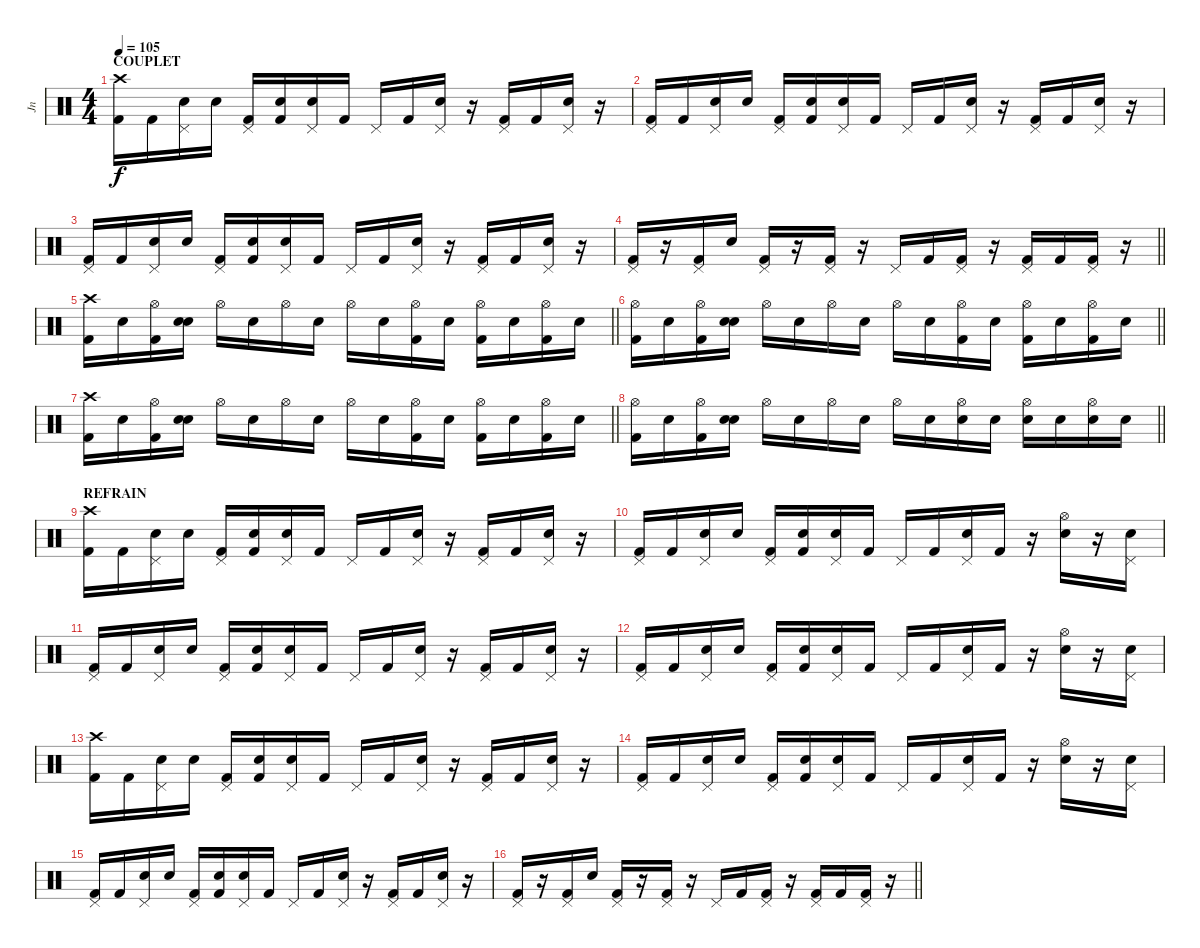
\track ("Jn" "Jn") {instrument percussion}
\staff {score}
\articulation defaults
\ts (4 4)
\section ("" "COUPLET")
\tempo 105
\clef neutral
\ks c
("Crash high (hit)" "Kick (hit) 2").16{dy f} "Kick (hit) 2".16 ("Pedal Hi-Hat (hit)" "Electric Snare (hit)").16 "Snare (hit)".16 ("Pedal Hi-Hat (hit)" "Kick (hit) 2").16 ("Snare (hit)" "Kick (hit) 2").16 ("Pedal Hi-Hat (hit)" "Electric Snare (hit)").16 "Kick (hit) 2".16 "Pedal Hi-Hat (hit)".16 "Kick (hit) 2".16 ("Pedal Hi-Hat (hit)" "Electric Snare (hit)").16 r.16 ("Pedal Hi-Hat (hit)" "Kick (hit) 2").16 "Kick (hit) 2".16 ("Pedal Hi-Hat (hit)" "Electric Snare (hit)").16 r.16 |
("Pedal Hi-Hat (hit)" "Kick (hit) 2").16 "Kick (hit) 2".16 ("Pedal Hi-Hat (hit)" "Electric Snare (hit)").16 "Snare (hit)".16 ("Pedal Hi-Hat (hit)" "Kick (hit) 2").16 ("Snare (hit)" "Kick (hit) 2").16 ("Pedal Hi-Hat (hit)" "Electric Snare (hit)").16 "Kick (hit) 2".16 "Pedal Hi-Hat (hit)".16 "Kick (hit) 2".16 ("Pedal Hi-Hat (hit)" "Electric Snare (hit)").16 r.16 ("Pedal Hi-Hat (hit)" "Kick (hit) 2").16 "Kick (hit) 2".16 ("Pedal Hi-Hat (hit)" "Electric Snare (hit)").16 r.16 |
("Pedal Hi-Hat (hit)" "Kick (hit) 2").16 "Kick (hit) 2".16 ("Pedal Hi-Hat (hit)" "Electric Snare (hit)").16 "Snare (hit)".16 ("Pedal Hi-Hat (hit)" "Kick (hit) 2").16 ("Snare (hit)" "Kick (hit) 2").16 ("Pedal Hi-Hat (hit)" "Electric Snare (hit)").16 "Kick (hit) 2".16 "Pedal Hi-Hat (hit)".16 "Kick (hit) 2".16 ("Pedal Hi-Hat (hit)" "Electric Snare (hit)").16 r.16 ("Pedal Hi-Hat (hit)" "Kick (hit) 2").16 "Kick (hit) 2".16 ("Pedal Hi-Hat (hit)" "Electric Snare (hit)").16 r.16 |
\barLineRight lightlight
("Pedal Hi-Hat (hit)" "Kick (hit) 2").16 r.16 ("Pedal Hi-Hat (hit)" "Kick (hit) 2").16 "Snare (hit)".16 ("Pedal Hi-Hat (hit)" "Kick (hit) 2").16 r.16 ("Pedal Hi-Hat (hit)" "Kick (hit) 2").16 r.16 "Pedal Hi-Hat (hit)".16 "Kick (hit) 2".16 ("Pedal Hi-Hat (hit)" "Kick (hit) 2").16 r.16 ("Pedal Hi-Hat (hit)" "Kick (hit) 2").16 "Kick (hit) 2".16 ("Pedal Hi-Hat (hit)" "Kick (hit) 2").16 r.16 |
\barLineRight lightlight
("Crash high (hit)" "Kick (hit) 2").16 "Electric Snare (hit)".16 ("Hi-Hat (open)" "Kick (hit) 2").16 ("Snare (hit)" "Electric Snare (hit)").16 "Hi-Hat (open)".16 "Electric Snare (hit)".16 "Hi-Hat (open)".16 "Electric Snare (hit)".16 "Hi-Hat (open)".16 "Electric Snare (hit)".16 ("Hi-Hat (open)" "Kick (hit) 2").16 "Electric Snare (hit)".16 ("Hi-Hat (open)" "Kick (hit) 2").16 "Electric Snare (hit)".16 ("Hi-Hat (open)" "Kick (hit) 2").16 "Electric Snare (hit)".16 |
\barLineRight lightlight
("Hi-Hat (open)" "Kick (hit) 2").16 "Electric Snare (hit)".16 ("Hi-Hat (open)" "Kick (hit) 2").16 ("Snare (hit)" "Electric Snare (hit)").16 "Hi-Hat (open)".16 "Electric Snare (hit)".16 "Hi-Hat (open)".16 "Electric Snare (hit)".16 "Hi-Hat (open)".16 "Electric Snare (hit)".16 ("Hi-Hat (open)" "Kick (hit) 2").16 "Electric Snare (hit)".16 ("Hi-Hat (open)" "Kick (hit) 2").16 "Electric Snare (hit)".16 ("Hi-Hat (open)" "Kick (hit) 2").16 "Electric Snare (hit)".16 |
\barLineRight lightlight
("Crash high (hit)" "Kick (hit) 2").16 "Electric Snare (hit)".16 ("Hi-Hat (open)" "Kick (hit) 2").16 ("Snare (hit)" "Electric Snare (hit)").16 "Hi-Hat (open)".16 "Electric Snare (hit)".16 "Hi-Hat (open)".16 "Electric Snare (hit)".16 "Hi-Hat (open)".16 "Electric Snare (hit)".16 ("Hi-Hat (open)" "Kick (hit) 2").16 "Electric Snare (hit)".16 ("Hi-Hat (open)" "Kick (hit) 2").16 "Electric Snare (hit)".16 ("Hi-Hat (open)" "Kick (hit) 2").16 "Electric Snare (hit)".16 |
\barLineRight lightlight
("Hi-Hat (open)" "Kick (hit) 2").16 "Electric Snare (hit)".16 ("Hi-Hat (open)" "Kick (hit) 2").16 ("Snare (hit)" "Electric Snare (hit)").16 "Hi-Hat (open)".16 "Electric Snare (hit)".16 "Hi-Hat (open)".16 "Electric Snare (hit)".16 "Hi-Hat (open)".16 "Electric Snare (hit)".16 ("Hi-Hat (open)" "Electric Snare (hit)").16 "Electric Snare (hit)".16 ("Hi-Hat (open)" "Electric Snare (hit)").16 "Electric Snare (hit)".16 ("Hi-Hat (open)" "Electric Snare (hit)").16 "Electric Snare (hit)".16 |
\section ("" "REFRAIN")
("Crash high (hit)" "Kick (hit) 2").16 "Kick (hit) 2".16 ("Pedal Hi-Hat (hit)" "Electric Snare (hit)").16 "Snare (hit)".16 ("Pedal Hi-Hat (hit)" "Kick (hit) 2").16 ("Snare (hit)" "Kick (hit) 2").16 ("Pedal Hi-Hat (hit)" "Electric Snare (hit)").16 "Kick (hit) 2".16 "Pedal Hi-Hat (hit)".16 "Kick (hit) 2".16 ("Pedal Hi-Hat (hit)" "Electric Snare (hit)").16 r.16 ("Pedal Hi-Hat (hit)" "Kick (hit) 2").16 "Kick (hit) 2".16 ("Pedal Hi-Hat (hit)" "Electric Snare (hit)").16 r.16 |
("Pedal Hi-Hat (hit)" "Kick (hit) 2").16 "Kick (hit) 2".16 ("Pedal Hi-Hat (hit)" "Electric Snare (hit)").16 "Snare (hit)".16 ("Pedal Hi-Hat (hit)" "Kick (hit) 2").16 ("Snare (hit)" "Kick (hit) 2").16 ("Pedal Hi-Hat (hit)" "Electric Snare (hit)").16 "Kick (hit) 2".16 "Pedal Hi-Hat (hit)".16 "Kick (hit) 2".16 ("Pedal Hi-Hat (hit)" "Electric Snare (hit)").16 "Kick (hit) 2".16 r.16 ("Hi-Hat (open)" "Electric Snare (hit)").16 r.16 ("Pedal Hi-Hat (hit)" "Electric Snare (hit)").16 |
("Pedal Hi-Hat (hit)" "Kick (hit) 2").16 "Kick (hit) 2".16 ("Pedal Hi-Hat (hit)" "Electric Snare (hit)").16 "Snare (hit)".16 ("Pedal Hi-Hat (hit)" "Kick (hit) 2").16 ("Snare (hit)" "Kick (hit) 2").16 ("Pedal Hi-Hat (hit)" "Electric Snare (hit)").16 "Kick (hit) 2".16 "Pedal Hi-Hat (hit)".16 "Kick (hit) 2".16 ("Pedal Hi-Hat (hit)" "Electric Snare (hit)").16 r.16 ("Pedal Hi-Hat (hit)" "Kick (hit) 2").16 "Kick (hit) 2".16 ("Pedal Hi-Hat (hit)" "Electric Snare (hit)").16 r.16 |
("Pedal Hi-Hat (hit)" "Kick (hit) 2").16 "Kick (hit) 2".16 ("Pedal Hi-Hat (hit)" "Electric Snare (hit)").16 "Snare (hit)".16 ("Pedal Hi-Hat (hit)" "Kick (hit) 2").16 ("Snare (hit)" "Kick (hit) 2").16 ("Pedal Hi-Hat (hit)" "Electric Snare (hit)").16 "Kick (hit) 2".16 "Pedal Hi-Hat (hit)".16 "Kick (hit) 2".16 ("Pedal Hi-Hat (hit)" "Electric Snare (hit)").16 "Kick (hit) 2".16 r.16 ("Hi-Hat (open)" "Electric Snare (hit)").16 r.16 ("Pedal Hi-Hat (hit)" "Electric Snare (hit)").16 |
("Crash high (hit)" "Kick (hit) 2").16 "Kick (hit) 2".16 ("Pedal Hi-Hat (hit)" "Electric Snare (hit)").16 "Snare (hit)".16 ("Pedal Hi-Hat (hit)" "Kick (hit) 2").16 ("Snare (hit)" "Kick (hit) 2").16 ("Pedal Hi-Hat (hit)" "Electric Snare (hit)").16 "Kick (hit) 2".16 "Pedal Hi-Hat (hit)".16 "Kick (hit) 2".16 ("Pedal Hi-Hat (hit)" "Electric Snare (hit)").16 r.16 ("Pedal Hi-Hat (hit)" "Kick (hit) 2").16 "Kick (hit) 2".16 ("Pedal Hi-Hat (hit)" "Electric Snare (hit)").16 r.16 |
("Pedal Hi-Hat (hit)" "Kick (hit) 2").16 "Kick (hit) 2".16 ("Pedal Hi-Hat (hit)" "Electric Snare (hit)").16 "Snare (hit)".16 ("Pedal Hi-Hat (hit)" "Kick (hit) 2").16 ("Snare (hit)" "Kick (hit) 2").16 ("Pedal Hi-Hat (hit)" "Electric Snare (hit)").16 "Kick (hit) 2".16 "Pedal Hi-Hat (hit)".16 "Kick (hit) 2".16 ("Pedal Hi-Hat (hit)" "Electric Snare (hit)").16 "Kick (hit) 2".16 r.16 ("Hi-Hat (open)" "Electric Snare (hit)").16 r.16 ("Pedal Hi-Hat (hit)" "Electric Snare (hit)").16 |
("Pedal Hi-Hat (hit)" "Kick (hit) 2").16 "Kick (hit) 2".16 ("Pedal Hi-Hat (hit)" "Electric Snare (hit)").16 "Snare (hit)".16 ("Pedal Hi-Hat (hit)" "Kick (hit) 2").16 ("Snare (hit)" "Kick (hit) 2").16 ("Pedal Hi-Hat (hit)" "Electric Snare (hit)").16 "Kick (hit) 2".16 "Pedal Hi-Hat (hit)".16 "Kick (hit) 2".16 ("Pedal Hi-Hat (hit)" "Electric Snare (hit)").16 r.16 ("Pedal Hi-Hat (hit)" "Kick (hit) 2").16 "Kick (hit) 2".16 ("Pedal Hi-Hat (hit)" "Electric Snare (hit)").16 r.16 |
\barLineRight lightlight
("Pedal Hi-Hat (hit)" "Kick (hit) 2").16 r.16 ("Pedal Hi-Hat (hit)" "Kick (hit) 2").16 "Snare (hit)".16 ("Pedal Hi-Hat (hit)" "Kick (hit) 2").16 r.16 ("Pedal Hi-Hat (hit)" "Kick (hit) 2").16 r.16 "Pedal Hi-Hat (hit)".16 "Kick (hit) 2".16 ("Pedal Hi-Hat (hit)" "Kick (hit) 2").16 r.16 ("Pedal Hi-Hat (hit)" "Kick (hit) 2").16 "Kick (hit) 2".16 ("Pedal Hi-Hat (hit)" "Kick (hit) 2").16 r.16
